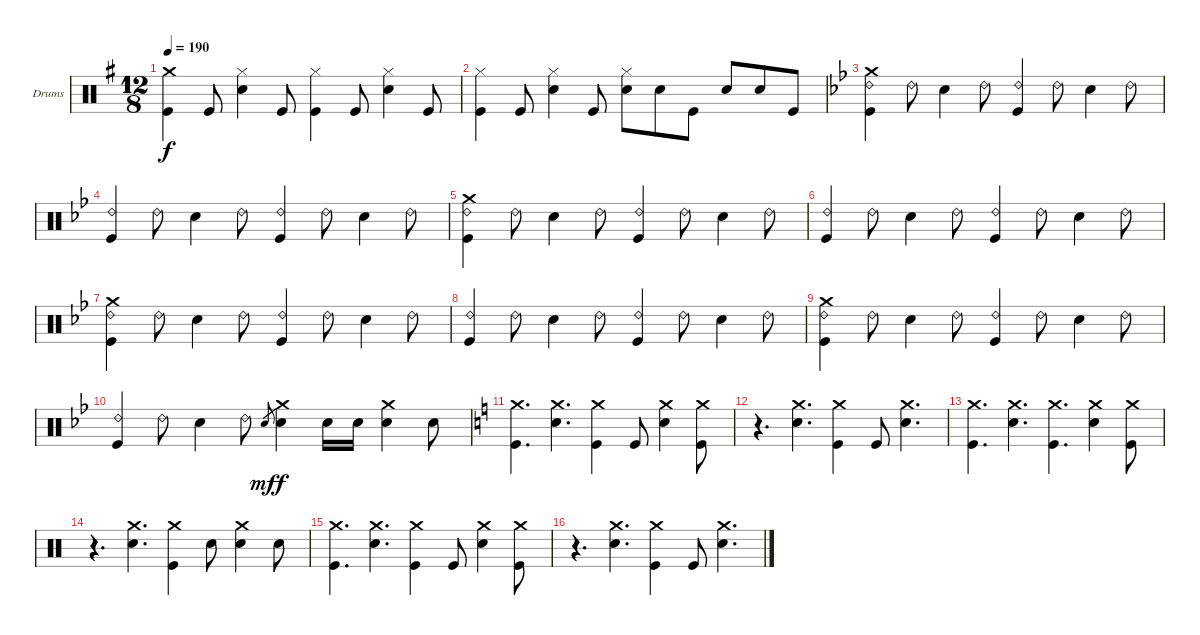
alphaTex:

\bracketExtendMode groupsimilarinstruments
\firstSystemTrackNameOrientation horizontal
\otherSystemsTrackNameOrientation horizontal
\track ("Drumkit" "Drums") {instrument percussion}
\staff {score}
\articulation defaults
\ts (12 8)
\tempo 190
\clef neutral
\ks eminor
("Crash medium (hit)" "Kick (hit)").4{dy f} "Kick (hit)".8 ("Hi-Hat (closed)" "Snare (hit) 2").4 "Kick (hit)".8 ("Hi-Hat (closed)" "Kick (hit)").4 "Kick (hit)".8 ("Hi-Hat (closed)" "Snare (hit) 2").4 "Kick (hit)".8 |
("Hi-Hat (closed)" "Kick (hit)").4 "Kick (hit)".8 ("Hi-Hat (closed)" "Snare (hit) 2").4 "Kick (hit)".8 ("Hi-Hat (closed)" "Snare (hit) 2").8 "Snare (hit) 2".8 "Kick (hit)".8 "Snare (hit) 2".8 "Snare (hit) 2".8 "Kick (hit)".8 |
\ks gminor
("Crash medium (hit)" "Ride (bell) 2" "Kick (hit)").4 "Ride (bell) 2".8 "Snare (hit) 2".4 "Ride (bell) 2".8 ("Ride (bell) 2" "Kick (hit)").4 "Ride (bell) 2".8 "Snare (hit) 2".4 "Ride (bell) 2".8 |
("Ride (bell) 2" "Kick (hit)").4 "Ride (bell) 2".8 "Snare (hit) 2".4 "Ride (bell) 2".8 ("Ride (bell) 2" "Kick (hit)").4 "Ride (bell) 2".8 "Snare (hit) 2".4 "Ride (bell) 2".8 |
("Crash medium (hit)" "Ride (bell) 2" "Kick (hit)").4 "Ride (bell) 2".8 "Snare (hit) 2".4 "Ride (bell) 2".8 ("Ride (bell) 2" "Kick (hit)").4 "Ride (bell) 2".8 "Snare (hit) 2".4 "Ride (bell) 2".8 |
("Ride (bell) 2" "Kick (hit)").4 "Ride (bell) 2".8 "Snare (hit) 2".4 "Ride (bell) 2".8 ("Ride (bell) 2" "Kick (hit)").4 "Ride (bell) 2".8 "Snare (hit) 2".4 "Ride (bell) 2".8 |
("Crash medium (hit)" "Ride (bell) 2" "Kick (hit)").4 "Ride (bell) 2".8 "Snare (hit) 2".4 "Ride (bell) 2".8 ("Ride (bell) 2" "Kick (hit)").4 "Ride (bell) 2".8 "Snare (hit) 2".4 "Ride (bell) 2".8 |
("Ride (bell) 2" "Kick (hit)").4 "Ride (bell) 2".8 "Snare (hit) 2".4 "Ride (bell) 2".8 ("Ride (bell) 2" "Kick (hit)").4 "Ride (bell) 2".8 "Snare (hit) 2".4 "Ride (bell) 2".8 |
("Crash medium (hit)" "Ride (bell) 2" "Kick (hit)").4 "Ride (bell) 2".8 "Snare (hit) 2".4 "Ride (bell) 2".8 ("Ride (bell) 2" "Kick (hit)").4 "Ride (bell) 2".8 "Snare (hit) 2".4 "Ride (bell) 2".8 |
("Ride (bell) 2" "Kick (hit)").4 "Ride (bell) 2".8 "Snare (hit) 2".4 "Ride (bell) 2".8 "Snare (hit) 2".8{gr dy mf} ("Crash medium (hit)" "Snare (hit) 2").4{dy f} "Snare (hit) 2".16 "Snare (hit) 2".16 ("Crash medium (hit)" "Snare (hit) 2").4 "Snare (hit) 2".8 |
\ks aminor
("Crash medium (hit)" "Kick (hit)").4{d} ("Crash medium (hit)" "Snare (hit) 2").4{d} ("Crash medium (hit)" "Kick (hit)").4 "Kick (hit)".8 ("Crash medium (hit)" "Snare (hit) 2").4 ("Crash medium (hit)" "Kick (hit)").8 |
r.4{d} ("Crash medium (hit)" "Snare (hit) 2").4{d} ("Crash medium (hit)" "Kick (hit)").4 "Kick (hit)".8 ("Crash medium (hit)" "Snare (hit) 2").4{d} |
("Crash medium (hit)" "Kick (hit)").4{d} ("Crash medium (hit)" "Snare (hit) 2").4{d} ("Crash medium (hit)" "Kick (hit)").4{d} ("Crash medium (hit)" "Snare (hit) 2").4 ("Crash medium (hit)" "Kick (hit)").8 |
r.4{d} ("Crash medium (hit)" "Snare (hit) 2").4{d} ("Crash medium (hit)" "Kick (hit)").4 "Snare (hit) 2".8 ("Crash medium (hit)" "Snare (hit) 2").4 "Snare (hit) 2".8 |
("Crash medium (hit)" "Kick (hit)").4{d} ("Crash medium (hit)" "Snare (hit) 2").4{d} ("Crash medium (hit)" "Kick (hit)").4 "Kick (hit)".8 ("Crash medium (hit)" "Snare (hit) 2").4 ("Crash medium (hit)" "Kick (hit)").8 |
r.4{d} ("Crash medium (hit)" "Snare (hit) 2").4{d} ("Crash medium (hit)" "Kick (hit)").4 "Kick (hit)".8 ("Crash medium (hit)" "Snare (hit) 2").4{d}
